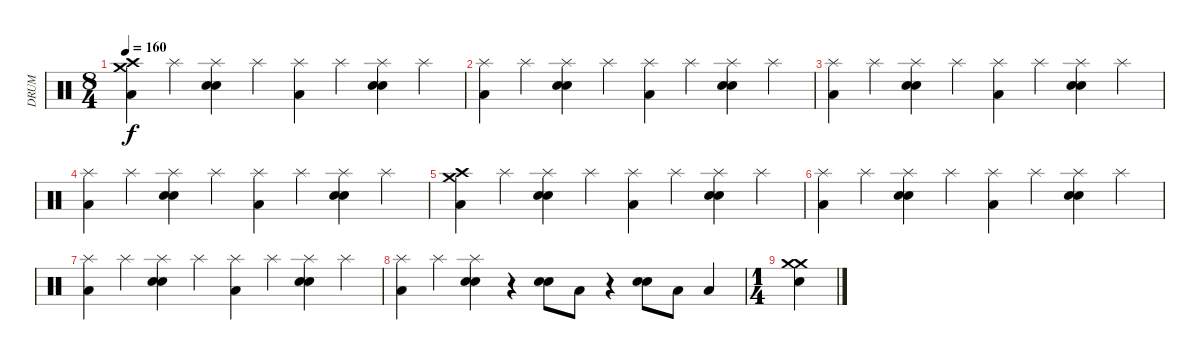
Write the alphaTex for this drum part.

\track ("DRUM" "DRUM") {instrument percussion}
\staff {score}
\articulation defaults
\ts (8 4)
\tempo 160
\clef neutral
\ks c
("Low Floor Tom (hit)" "Crash high (hit)" "Crash medium (hit)").4{dy f} "Splash (hit)".4 ("Electric Snare (hit)" "Electric Snare (hit)" "Splash (hit)").4 "Splash (hit)".4 ("Low Floor Tom (hit)" "Splash (hit)").4 "Splash (hit)".4 ("Electric Snare (hit)" "Electric Snare (hit)" "Splash (hit)").4 "Splash (hit)".4 |
("Low Floor Tom (hit)" "Splash (hit)").4 "Splash (hit)".4 ("Electric Snare (hit)" "Electric Snare (hit)" "Splash (hit)").4 "Splash (hit)".4 ("Low Floor Tom (hit)" "Splash (hit)").4 "Splash (hit)".4 ("Electric Snare (hit)" "Electric Snare (hit)" "Splash (hit)").4 "Splash (hit)".4 |
("Low Floor Tom (hit)" "Splash (hit)").4 "Splash (hit)".4 ("Electric Snare (hit)" "Electric Snare (hit)" "Splash (hit)").4 "Splash (hit)".4 ("Low Floor Tom (hit)" "Splash (hit)").4 "Splash (hit)".4 ("Electric Snare (hit)" "Electric Snare (hit)" "Splash (hit)").4 "Splash (hit)".4 |
("Low Floor Tom (hit)" "Splash (hit)").4 "Splash (hit)".4 ("Electric Snare (hit)" "Electric Snare (hit)" "Splash (hit)").4 "Splash (hit)".4 ("Low Floor Tom (hit)" "Splash (hit)").4 "Splash (hit)".4 ("Electric Snare (hit)" "Electric Snare (hit)" "Splash (hit)").4 "Splash (hit)".4 |
("Low Floor Tom (hit)" "Crash high (hit)" "Crash medium (hit)").4 "Splash (hit)".4 ("Electric Snare (hit)" "Electric Snare (hit)" "Splash (hit)").4 "Splash (hit)".4 ("Low Floor Tom (hit)" "Splash (hit)").4 "Splash (hit)".4 ("Electric Snare (hit)" "Electric Snare (hit)" "Splash (hit)").4 "Splash (hit)".4 |
("Low Floor Tom (hit)" "Splash (hit)").4 "Splash (hit)".4 ("Electric Snare (hit)" "Electric Snare (hit)" "Splash (hit)").4 "Splash (hit)".4 ("Low Floor Tom (hit)" "Splash (hit)").4 "Splash (hit)".4 ("Electric Snare (hit)" "Electric Snare (hit)" "Splash (hit)").4 "Splash (hit)".4 |
("Low Floor Tom (hit)" "Splash (hit)").4 "Splash (hit)".4 ("Electric Snare (hit)" "Electric Snare (hit)" "Splash (hit)").4 "Splash (hit)".4 ("Low Floor Tom (hit)" "Splash (hit)").4 "Splash (hit)".4 ("Electric Snare (hit)" "Electric Snare (hit)" "Splash (hit)").4 "Splash (hit)".4 |
("Low Floor Tom (hit)" "Splash (hit)").4 "Splash (hit)".4 ("Electric Snare (hit)" "Electric Snare (hit)" "Splash (hit)").4 r.4 ("Electric Snare (hit)" "Electric Snare (hit)").8 "Low Floor Tom (hit)".8 r.4 ("Electric Snare (hit)" "Electric Snare (hit)").8 "Low Floor Tom (hit)".8 "Low Floor Tom (hit)".4 |
\ts (1 4)
("Electric Snare (hit)" "Crash medium (hit)" "Crash medium (hit)").4
